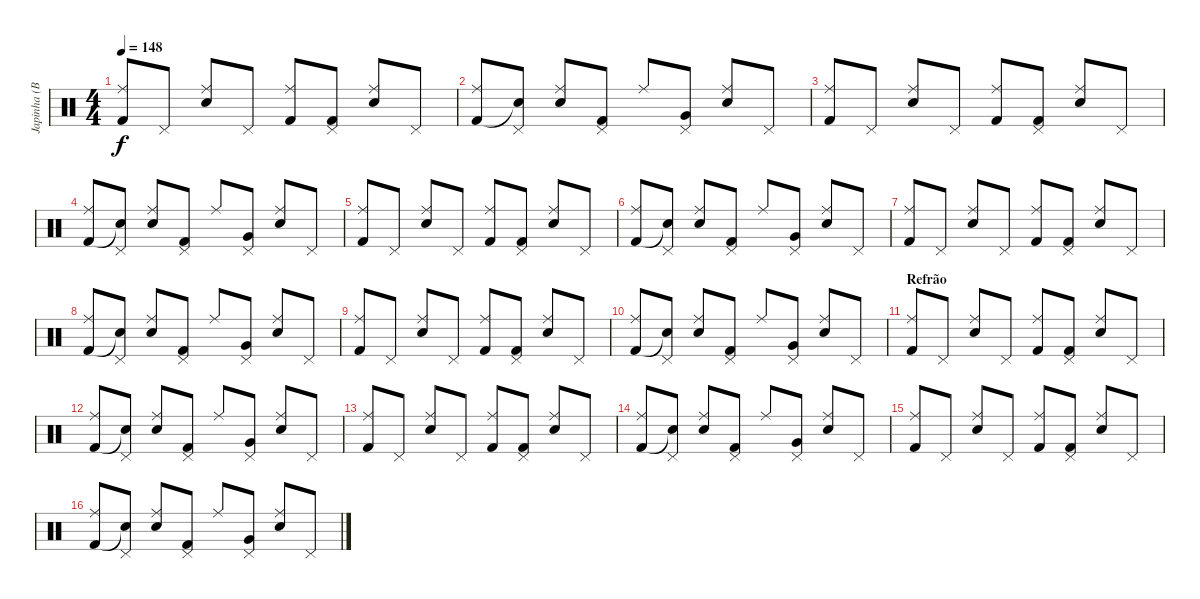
\track ("Japinha (Bateria)" "Japinha (B") {instrument percussion}
\staff {score}
\articulation defaults
\ts (4 4)
\tempo 148
\clef neutral
\ks c
("Ride (middle)" "Kick (hit) 2").8{dy f} "Pedal Hi-Hat (hit)".8 ("Ride (middle)" "Snare (hit) 2").8 "Pedal Hi-Hat (hit)".8 ("Ride (middle)" "Kick (hit) 2").8 ("Pedal Hi-Hat (hit)" "Kick (hit) 2").8 ("Ride (middle)" "Snare (hit) 2").8 "Pedal Hi-Hat (hit)".8 |
("Ride (middle)" "Kick (hit) 2").8 ("Pedal Hi-Hat (hit)" "Snare (hit)"{t}).8 ("Ride (middle)" "Snare (hit) 2").8 ("Pedal Hi-Hat (hit)" "Kick (hit) 2").8 "Ride (middle)".8 ("Pedal Hi-Hat (hit)" "Very Low Tom (hit)").8 ("Ride (middle)" "Snare (hit) 2").8 "Pedal Hi-Hat (hit)".8 |
("Ride (middle)" "Kick (hit) 2").8 "Pedal Hi-Hat (hit)".8 ("Ride (middle)" "Snare (hit) 2").8 "Pedal Hi-Hat (hit)".8 ("Ride (middle)" "Kick (hit) 2").8 ("Pedal Hi-Hat (hit)" "Kick (hit) 2").8 ("Ride (middle)" "Snare (hit) 2").8 "Pedal Hi-Hat (hit)".8 |
("Ride (middle)" "Kick (hit) 2").8 ("Pedal Hi-Hat (hit)" "Snare (hit)"{t}).8 ("Ride (middle)" "Snare (hit) 2").8 ("Pedal Hi-Hat (hit)" "Kick (hit) 2").8 "Ride (middle)".8 ("Pedal Hi-Hat (hit)" "Very Low Tom (hit)").8 ("Ride (middle)" "Snare (hit) 2").8 "Pedal Hi-Hat (hit)".8 |
("Ride (middle)" "Kick (hit) 2").8 "Pedal Hi-Hat (hit)".8 ("Ride (middle)" "Snare (hit) 2").8 "Pedal Hi-Hat (hit)".8 ("Ride (middle)" "Kick (hit) 2").8 ("Pedal Hi-Hat (hit)" "Kick (hit) 2").8 ("Ride (middle)" "Snare (hit) 2").8 "Pedal Hi-Hat (hit)".8 |
("Ride (middle)" "Kick (hit) 2").8 ("Pedal Hi-Hat (hit)" "Snare (hit)"{t}).8 ("Ride (middle)" "Snare (hit) 2").8 ("Pedal Hi-Hat (hit)" "Kick (hit) 2").8 "Ride (middle)".8 ("Pedal Hi-Hat (hit)" "Very Low Tom (hit)").8 ("Ride (middle)" "Snare (hit) 2").8 "Pedal Hi-Hat (hit)".8 |
("Ride (middle)" "Kick (hit) 2").8 "Pedal Hi-Hat (hit)".8 ("Ride (middle)" "Snare (hit) 2").8 "Pedal Hi-Hat (hit)".8 ("Ride (middle)" "Kick (hit) 2").8 ("Pedal Hi-Hat (hit)" "Kick (hit) 2").8 ("Ride (middle)" "Snare (hit) 2").8 "Pedal Hi-Hat (hit)".8 |
("Ride (middle)" "Kick (hit) 2").8 ("Pedal Hi-Hat (hit)" "Snare (hit)"{t}).8 ("Ride (middle)" "Snare (hit) 2").8 ("Pedal Hi-Hat (hit)" "Kick (hit) 2").8 "Ride (middle)".8 ("Pedal Hi-Hat (hit)" "Very Low Tom (hit)").8 ("Ride (middle)" "Snare (hit) 2").8 "Pedal Hi-Hat (hit)".8 |
("Ride (middle)" "Kick (hit) 2").8 "Pedal Hi-Hat (hit)".8 ("Ride (middle)" "Snare (hit) 2").8 "Pedal Hi-Hat (hit)".8 ("Ride (middle)" "Kick (hit) 2").8 ("Pedal Hi-Hat (hit)" "Kick (hit) 2").8 ("Ride (middle)" "Snare (hit) 2").8 "Pedal Hi-Hat (hit)".8 |
("Ride (middle)" "Kick (hit) 2").8 ("Pedal Hi-Hat (hit)" "Snare (hit)"{t}).8 ("Ride (middle)" "Snare (hit) 2").8 ("Pedal Hi-Hat (hit)" "Kick (hit) 2").8 "Ride (middle)".8 ("Pedal Hi-Hat (hit)" "Very Low Tom (hit)").8 ("Ride (middle)" "Snare (hit) 2").8 "Pedal Hi-Hat (hit)".8 |
\section ("" "Refrão")
("Ride (middle)" "Kick (hit) 2").8 "Pedal Hi-Hat (hit)".8 ("Ride (middle)" "Snare (hit) 2").8 "Pedal Hi-Hat (hit)".8 ("Ride (middle)" "Kick (hit) 2").8 ("Pedal Hi-Hat (hit)" "Kick (hit) 2").8 ("Ride (middle)" "Snare (hit) 2").8 "Pedal Hi-Hat (hit)".8 |
("Ride (middle)" "Kick (hit) 2").8 ("Pedal Hi-Hat (hit)" "Snare (hit)"{t}).8 ("Ride (middle)" "Snare (hit) 2").8 ("Pedal Hi-Hat (hit)" "Kick (hit) 2").8 "Ride (middle)".8 ("Pedal Hi-Hat (hit)" "Very Low Tom (hit)").8 ("Ride (middle)" "Snare (hit) 2").8 "Pedal Hi-Hat (hit)".8 |
("Ride (middle)" "Kick (hit) 2").8 "Pedal Hi-Hat (hit)".8 ("Ride (middle)" "Snare (hit) 2").8 "Pedal Hi-Hat (hit)".8 ("Ride (middle)" "Kick (hit) 2").8 ("Pedal Hi-Hat (hit)" "Kick (hit) 2").8 ("Ride (middle)" "Snare (hit) 2").8 "Pedal Hi-Hat (hit)".8 |
("Ride (middle)" "Kick (hit) 2").8 ("Pedal Hi-Hat (hit)" "Snare (hit)"{t}).8 ("Ride (middle)" "Snare (hit) 2").8 ("Pedal Hi-Hat (hit)" "Kick (hit) 2").8 "Ride (middle)".8 ("Pedal Hi-Hat (hit)" "Very Low Tom (hit)").8 ("Ride (middle)" "Snare (hit) 2").8 "Pedal Hi-Hat (hit)".8 |
("Ride (middle)" "Kick (hit) 2").8 "Pedal Hi-Hat (hit)".8 ("Ride (middle)" "Snare (hit) 2").8 "Pedal Hi-Hat (hit)".8 ("Ride (middle)" "Kick (hit) 2").8 ("Pedal Hi-Hat (hit)" "Kick (hit) 2").8 ("Ride (middle)" "Snare (hit) 2").8 "Pedal Hi-Hat (hit)".8 |
("Ride (middle)" "Kick (hit) 2").8 ("Pedal Hi-Hat (hit)" "Snare (hit)"{t}).8 ("Ride (middle)" "Snare (hit) 2").8 ("Pedal Hi-Hat (hit)" "Kick (hit) 2").8 "Ride (middle)".8 ("Pedal Hi-Hat (hit)" "Very Low Tom (hit)").8 ("Ride (middle)" "Snare (hit) 2").8 "Pedal Hi-Hat (hit)".8
